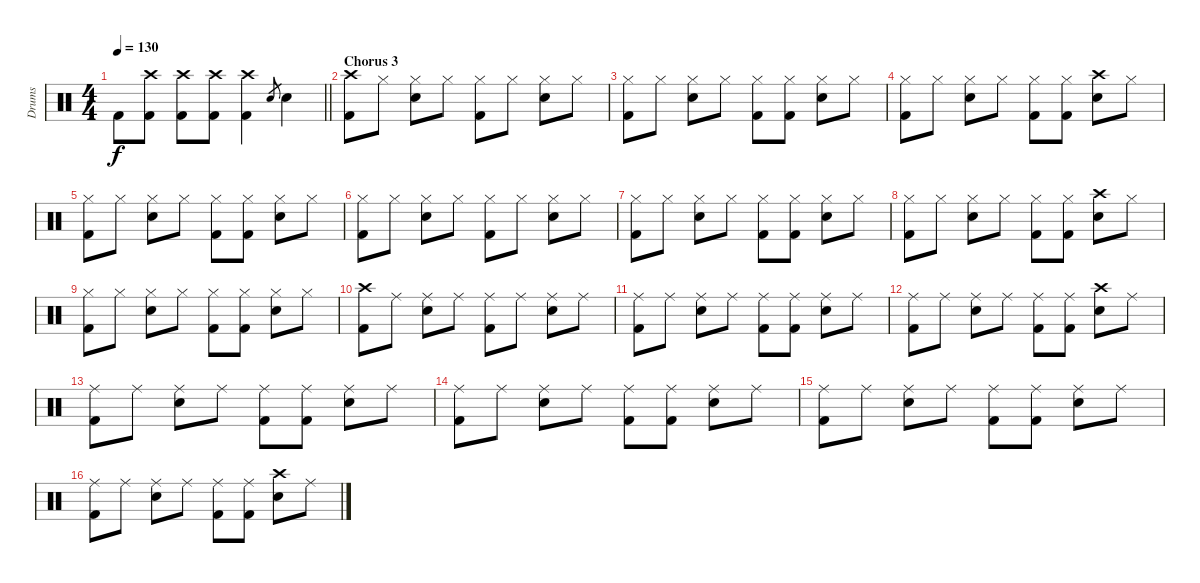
\track ("Drums" "Drums") {instrument percussion}
\staff {score}
\articulation defaults
\ts (4 4)
\tempo 130
\clef neutral
\barLineRight lightlight
\ks c "Kick (hit) 2".8{dy f}
("Crash high (hit)" "Kick (hit) 2").8 ("Crash high (hit)" "Kick (hit) 2").8 ("Crash high (hit)" "Kick (hit) 2").8 ("Crash high (hit)" "Kick (hit) 2").4 "Snare (hit) 2".8{gr} "Snare (hit) 2".4 |
\section ("" "Chorus 3")
("Crash high (hit)" "Kick (hit) 2").8 "Hi-Hat (closed)".8 ("Hi-Hat (closed)" "Snare (hit) 2").8 "Hi-Hat (closed)".8 ("Hi-Hat (closed)" "Kick (hit) 2").8 "Hi-Hat (closed)".8 ("Hi-Hat (closed)" "Snare (hit) 2").8 "Hi-Hat (closed)".8 |
("Hi-Hat (closed)" "Kick (hit) 2").8 "Hi-Hat (closed)".8 ("Hi-Hat (closed)" "Snare (hit) 2").8 "Hi-Hat (closed)".8 ("Hi-Hat (closed)" "Kick (hit) 2").8 ("Hi-Hat (closed)" "Kick (hit) 2").8 ("Hi-Hat (closed)" "Snare (hit) 2").8 "Hi-Hat (closed)".8 |
("Hi-Hat (closed)" "Kick (hit) 2").8 "Hi-Hat (closed)".8 ("Hi-Hat (closed)" "Snare (hit) 2").8 "Hi-Hat (closed)".8 ("Hi-Hat (closed)" "Kick (hit) 2").8 ("Hi-Hat (closed)" "Kick (hit) 2").8 ("Crash high (hit)" "Snare (hit) 2").8 "Hi-Hat (closed)".8 |
("Hi-Hat (closed)" "Kick (hit) 2").8 "Hi-Hat (closed)".8 ("Hi-Hat (closed)" "Snare (hit) 2").8 "Hi-Hat (closed)".8 ("Hi-Hat (closed)" "Kick (hit) 2").8 ("Hi-Hat (closed)" "Kick (hit) 2").8 ("Hi-Hat (closed)" "Snare (hit) 2").8 "Hi-Hat (closed)".8 |
("Hi-Hat (closed)" "Kick (hit) 2").8 "Hi-Hat (closed)".8 ("Hi-Hat (closed)" "Snare (hit) 2").8 "Hi-Hat (closed)".8 ("Hi-Hat (closed)" "Kick (hit) 2").8 "Hi-Hat (closed)".8 ("Hi-Hat (closed)" "Snare (hit) 2").8 "Hi-Hat (closed)".8 |
("Hi-Hat (closed)" "Kick (hit) 2").8 "Hi-Hat (closed)".8 ("Hi-Hat (closed)" "Snare (hit) 2").8 "Hi-Hat (closed)".8 ("Hi-Hat (closed)" "Kick (hit) 2").8 ("Hi-Hat (closed)" "Kick (hit) 2").8 ("Hi-Hat (closed)" "Snare (hit) 2").8 "Hi-Hat (closed)".8 |
("Hi-Hat (closed)" "Kick (hit) 2").8 "Hi-Hat (closed)".8 ("Hi-Hat (closed)" "Snare (hit) 2").8 "Hi-Hat (closed)".8 ("Hi-Hat (closed)" "Kick (hit) 2").8 ("Hi-Hat (closed)" "Kick (hit) 2").8 ("Crash high (hit)" "Snare (hit) 2").8 "Hi-Hat (closed)".8 |
("Hi-Hat (closed)" "Kick (hit) 2").8 "Hi-Hat (closed)".8 ("Hi-Hat (closed)" "Snare (hit) 2").8 "Hi-Hat (closed)".8 ("Hi-Hat (closed)" "Kick (hit) 2").8 ("Hi-Hat (closed)" "Kick (hit) 2").8 ("Hi-Hat (closed)" "Snare (hit) 2").8 "Hi-Hat (closed)".8 |
("Crash high (hit)" "Kick (hit) 2").8 "Ride (middle)".8 ("Ride (middle)" "Snare (hit) 2").8 "Ride (middle)".8 ("Ride (middle)" "Kick (hit) 2").8 "Ride (middle)".8 ("Ride (middle)" "Snare (hit) 2").8 "Ride (middle)".8 |
("Ride (middle)" "Kick (hit) 2").8 "Ride (middle)".8 ("Ride (middle)" "Snare (hit) 2").8 "Ride (middle)".8 ("Ride (middle)" "Kick (hit) 2").8 ("Ride (middle)" "Kick (hit) 2").8 ("Ride (middle)" "Snare (hit) 2").8 "Ride (middle)".8 |
("Ride (middle)" "Kick (hit) 2").8 "Ride (middle)".8 ("Ride (middle)" "Snare (hit) 2").8 "Ride (middle)".8 ("Ride (middle)" "Kick (hit) 2").8 ("Ride (middle)" "Kick (hit) 2").8 ("Crash high (hit)" "Snare (hit) 2").8 "Ride (middle)".8 |
("Ride (middle)" "Kick (hit) 2").8 "Ride (middle)".8 ("Ride (middle)" "Snare (hit) 2").8 "Ride (middle)".8 ("Ride (middle)" "Kick (hit) 2").8 ("Ride (middle)" "Kick (hit) 2").8 ("Ride (middle)" "Snare (hit) 2").8 "Ride (middle)".8 |
("Ride (middle)" "Kick (hit) 2").8 "Ride (middle)".8 ("Ride (middle)" "Snare (hit) 2").8 "Ride (middle)".8 ("Ride (middle)" "Kick (hit) 2").8 ("Ride (middle)" "Kick (hit) 2").8 ("Ride (middle)" "Snare (hit) 2").8 "Ride (middle)".8 |
("Ride (middle)" "Kick (hit) 2").8 "Ride (middle)".8 ("Ride (middle)" "Snare (hit) 2").8 "Ride (middle)".8 ("Ride (middle)" "Kick (hit) 2").8 ("Ride (middle)" "Kick (hit) 2").8 ("Ride (middle)" "Snare (hit) 2").8 "Ride (middle)".8 |
("Ride (middle)" "Kick (hit) 2").8 "Ride (middle)".8 ("Ride (middle)" "Snare (hit) 2").8 "Ride (middle)".8 ("Ride (middle)" "Kick (hit) 2").8 ("Ride (middle)" "Kick (hit) 2").8 ("Crash high (hit)" "Snare (hit) 2").8 "Ride (middle)".8
